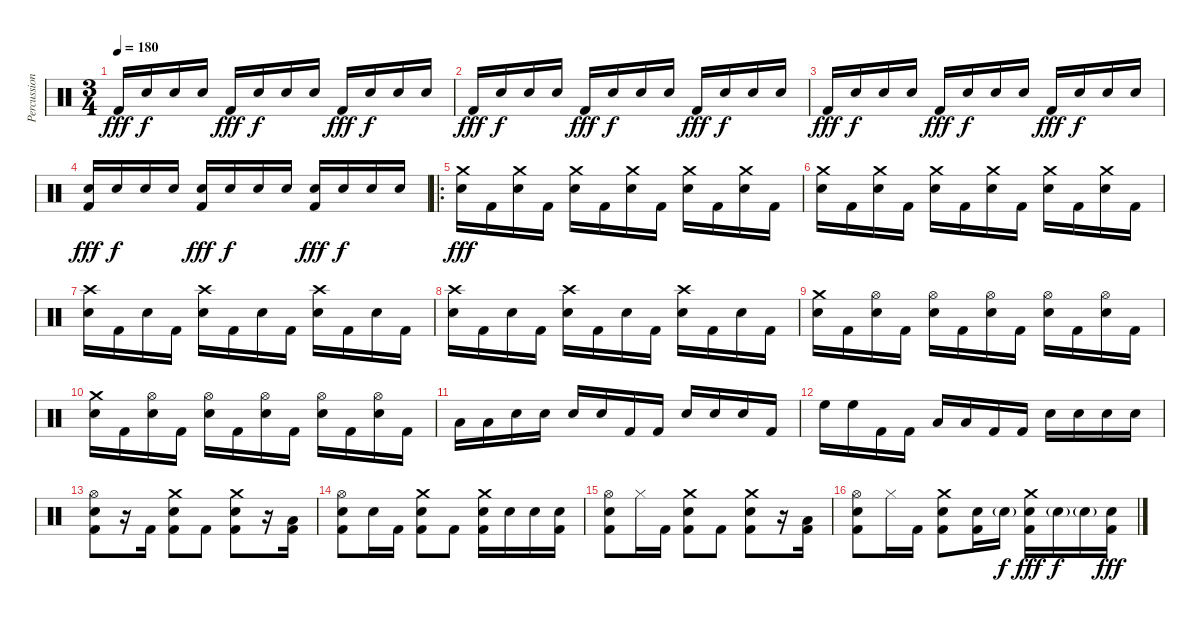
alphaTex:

\track ("Percussion" "Percussion") {instrument percussion}
\staff {score}
\articulation defaults
\ts (3 4)
\tempo 180
\clef neutral
\ks c "Kick (hit) 2".16{dy fff volume 0} "Electric Snare (hit)".16{dy f volume 16} "Electric Snare (hit)".16 "Electric Snare (hit)".16 "Kick (hit) 2".16{dy fff} "Electric Snare (hit)".16{dy f} "Electric Snare (hit)".16 "Electric Snare (hit)".16 "Kick (hit) 2".16{dy fff} "Electric Snare (hit)".16{dy f} "Electric Snare (hit)".16 "Electric Snare (hit)".16
|
"Kick (hit) 2".16{dy fff} "Electric Snare (hit)".16{dy f} "Electric Snare (hit)".16 "Electric Snare (hit)".16 "Kick (hit) 2".16{dy fff} "Electric Snare (hit)".16{dy f} "Electric Snare (hit)".16 "Electric Snare (hit)".16 "Kick (hit) 2".16{dy fff} "Electric Snare (hit)".16{dy f} "Electric Snare (hit)".16 "Electric Snare (hit)".16 |
"Kick (hit) 2".16{dy fff} "Electric Snare (hit)".16{dy f} "Electric Snare (hit)".16 "Electric Snare (hit)".16 "Kick (hit) 2".16{dy fff} "Electric Snare (hit)".16{dy f} "Electric Snare (hit)".16 "Electric Snare (hit)".16 "Kick (hit) 2".16{dy fff} "Electric Snare (hit)".16{dy f} "Electric Snare (hit)".16 "Electric Snare (hit)".16 |
("Electric Snare (hit)" "Kick (hit) 2").16{dy fff} "Electric Snare (hit)".16{dy f} "Electric Snare (hit)".16 "Electric Snare (hit)".16 ("Electric Snare (hit)" "Kick (hit) 2").16{dy fff} "Electric Snare (hit)".16{dy f} "Electric Snare (hit)".16 "Electric Snare (hit)".16 ("Electric Snare (hit)" "Kick (hit) 2").16{dy fff} "Electric Snare (hit)".16{dy f} "Electric Snare (hit)".16 "Electric Snare (hit)".16 |
\ro
("Crash medium (hit)" "Electric Snare (hit)").16{dy fff} "Kick (hit) 2".16 ("Crash medium (hit)" "Electric Snare (hit)").16 "Kick (hit) 2".16 ("Crash medium (hit)" "Electric Snare (hit)").16 "Kick (hit) 2".16 ("Crash medium (hit)" "Electric Snare (hit)").16 "Kick (hit) 2".16 ("Crash medium (hit)" "Electric Snare (hit)").16 "Kick (hit) 2".16 ("Crash medium (hit)" "Electric Snare (hit)").16 "Kick (hit) 2".16 |
("Crash medium (hit)" "Electric Snare (hit)").16 "Kick (hit) 2".16 ("Crash medium (hit)" "Electric Snare (hit)").16 "Kick (hit) 2".16 ("Crash medium (hit)" "Electric Snare (hit)").16 "Kick (hit) 2".16 ("Crash medium (hit)" "Electric Snare (hit)").16 "Kick (hit) 2".16 ("Crash medium (hit)" "Electric Snare (hit)").16 "Kick (hit) 2".16 ("Crash medium (hit)" "Electric Snare (hit)").16 "Kick (hit) 2".16 |
("Crash high (hit)" "Electric Snare (hit)").16 "Kick (hit) 2".16 "Electric Snare (hit)".16 "Kick (hit) 2".16 ("Crash high (hit)" "Electric Snare (hit)").16 "Kick (hit) 2".16 "Electric Snare (hit)".16 "Kick (hit) 2".16 ("Crash high (hit)" "Electric Snare (hit)").16 "Kick (hit) 2".16 "Electric Snare (hit)".16 "Kick (hit) 2".16 |
("Crash high (hit)" "Electric Snare (hit)").16 "Kick (hit) 2".16 "Electric Snare (hit)".16 "Kick (hit) 2".16 ("Crash high (hit)" "Electric Snare (hit)").16 "Kick (hit) 2".16 "Electric Snare (hit)".16 "Kick (hit) 2".16 ("Crash high (hit)" "Electric Snare (hit)").16 "Kick (hit) 2".16 "Electric Snare (hit)".16 "Kick (hit) 2".16 |
("Crash medium (hit)" "Electric Snare (hit)").16 "Kick (hit) 2".16 ("Hi-Hat (open)" "Electric Snare (hit)").16 "Kick (hit) 2".16 ("Hi-Hat (open)" "Electric Snare (hit)").16 "Kick (hit) 2".16 ("Hi-Hat (open)" "Electric Snare (hit)").16 "Kick (hit) 2".16 ("Hi-Hat (open)" "Electric Snare (hit)").16 "Kick (hit) 2".16 ("Hi-Hat (open)" "Electric Snare (hit)").16 "Kick (hit) 2".16 |
("Crash medium (hit)" "Electric Snare (hit)").16 "Kick (hit) 2".16 ("Hi-Hat (open)" "Electric Snare (hit)").16 "Kick (hit) 2".16 ("Hi-Hat (open)" "Electric Snare (hit)").16 "Kick (hit) 2".16 ("Hi-Hat (open)" "Electric Snare (hit)").16 "Kick (hit) 2".16 ("Hi-Hat (open)" "Electric Snare (hit)").16 "Kick (hit) 2".16 ("Hi-Hat (open)" "Electric Snare (hit)").16 "Kick (hit) 2".16 |
"Low Tom (hit)".16 "Low Tom (hit)".16 "Electric Snare (hit)".16 "Electric Snare (hit)".16 "Electric Snare (hit)".16 "Electric Snare (hit)".16 "Kick (hit) 2".16 "Kick (hit) 2".16 "Electric Snare (hit)".16 "Electric Snare (hit)".16 "Electric Snare (hit)".16 "Kick (hit) 2".16 |
"High Floor Tom (hit)".16 "High Floor Tom (hit)".16 "Kick (hit) 2".16 "Kick (hit) 2".16 "Low Tom (hit)".16 "Low Tom (hit)".16 "Kick (hit) 2".16 "Kick (hit) 2".16 "Electric Snare (hit)".16 "Electric Snare (hit)".16 "Electric Snare (hit)".16 "Electric Snare (hit)".16 |
("Hi-Hat (open)" "Electric Snare (hit)" "Kick (hit) 2").8 r.16 "Kick (hit) 2".16 ("Crash medium (hit)" "Electric Snare (hit)" "Kick (hit) 2").8 "Kick (hit) 2".8 ("Crash medium (hit)" "Electric Snare (hit)" "Kick (hit) 2").8 r.16 ("Low Floor Tom (hit)" "Kick (hit) 2").16 |
("Hi-Hat (open)" "Electric Snare (hit)" "Kick (hit) 2").8 "Electric Snare (hit)".16 "Kick (hit) 2".16 ("Crash medium (hit)" "Electric Snare (hit)" "Kick (hit) 2").8 "Kick (hit) 2".8 ("Crash medium (hit)" "Electric Snare (hit)" "Kick (hit) 2").16 "Electric Snare (hit)".16 "Electric Snare (hit)".16 ("Electric Snare (hit)" "Kick (hit) 2").16 |
("Hi-Hat (open)" "Electric Snare (hit)" "Kick (hit) 2").8 "Hi-Hat (closed)".16 "Kick (hit) 2".16 ("Crash medium (hit)" "Electric Snare (hit)" "Kick (hit) 2").8 "Kick (hit) 2".8 ("Crash medium (hit)" "Electric Snare (hit)" "Kick (hit) 2").8 r.16 ("Low Floor Tom (hit)" "Kick (hit) 2").16 |
("Hi-Hat (open)" "Electric Snare (hit)" "Kick (hit) 2").8 "Hi-Hat (closed)".16 "Kick (hit) 2".16 ("Crash medium (hit)" "Electric Snare (hit)" "Kick (hit) 2").8 ("Electric Snare (hit)" "Kick (hit) 2").16 "Electric Snare (hit)"{g}.16{dy f} ("Crash medium (hit)" "Electric Snare (hit)" "Kick (hit) 2").16{dy fff} "Electric Snare (hit)"{g}.16{dy f} "Electric Snare (hit)"{g}.16 ("Electric Snare (hit)" "Kick (hit) 2").16{dy fff}
